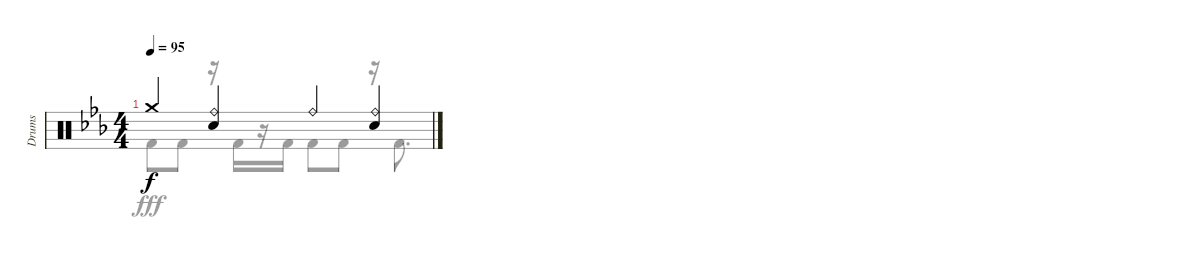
\track ("Drums" "Drums") {instrument percussion}
\staff {score}
\articulation defaults
\voice
\ts (4 4)
\tempo 95
\clef neutral
\ks cminor "Crash medium (hit)".4{dy f}
("Ride (bell)" "Snare (hit) 2").4 "Ride (bell)".4 ("Ride (bell)" "Snare (hit) 2").4
\voice
\clef neutral
\ottava regular
\simile none
\ks cminor "Kick (hit) 2".8{dy fff} "Kick (hit) 2".8
r.16 "Kick (hit) 2".16 r.16 "Kick (hit) 2".16 "Kick (hit) 2".8 "Kick (hit) 2".8 r.16 "Kick (hit) 2".8{d}
